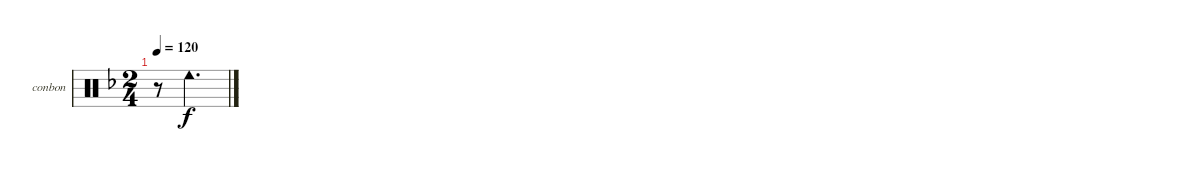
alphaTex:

\defaultSystemsLayout 4
\bracketExtendMode groupsimilarinstruments
\firstSystemTrackNameOrientation horizontal
\otherSystemsTrackNameOrientation horizontal
\track ("Bongos N Congas" "conbon") {instrument percussion}
\staff {score}
\articulation defaults
\ts (2 4)
\tempo 120
\clef neutral
\ks f
r.8{dy f} "Cowbell low (hit)".4{d}
